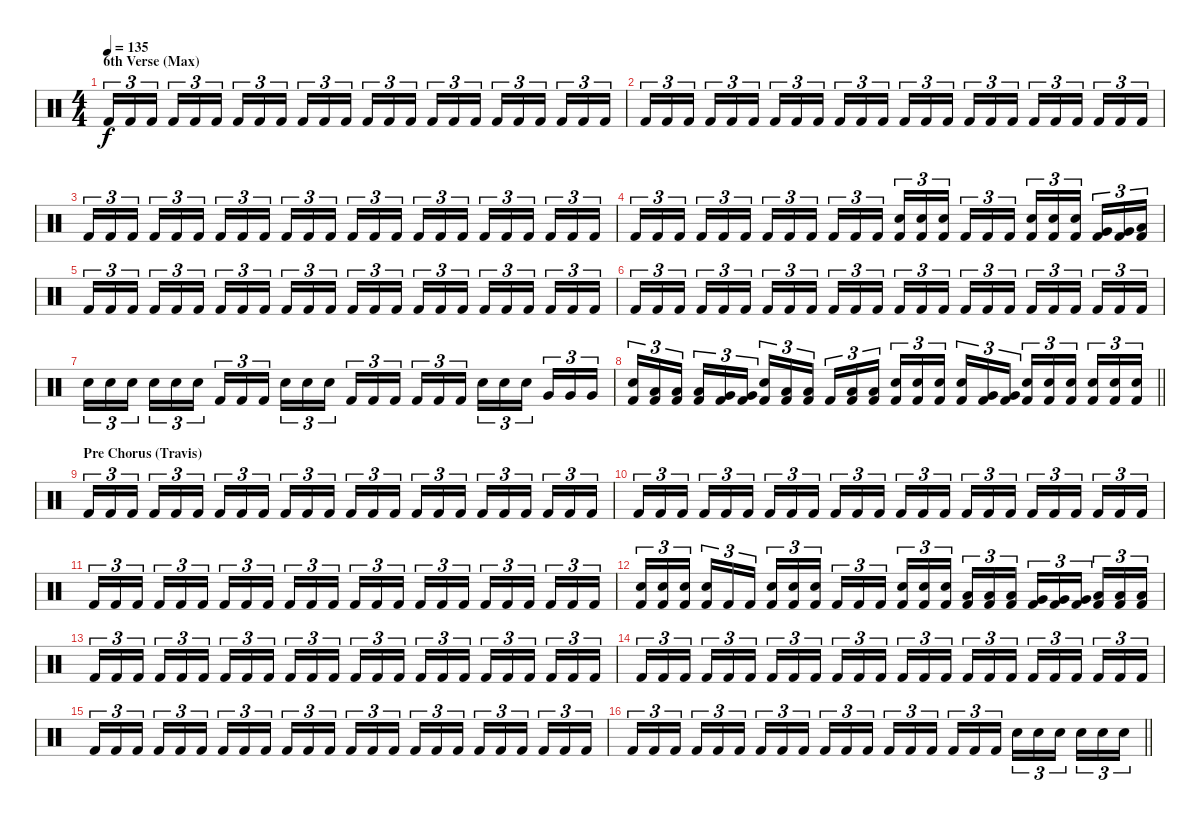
\track "" {instrument percussion}
\staff {score}
\articulation defaults
\ts (4 4)
\section ("" "6th Verse (Max)")
\tempo 135
\clef neutral
\ks c "Kick (hit) 2".16{tu (3 2) dy f} "Kick (hit) 2".16{tu (3 2)} "Kick (hit) 2".16{tu (3 2) beam splitsecondary} "Kick (hit) 2".16{tu (3 2)} "Kick (hit) 2".16{tu (3 2)} "Kick (hit) 2".16{tu (3 2)} "Kick (hit) 2".16{tu (3 2)} "Kick (hit) 2".16{tu (3 2)} "Kick (hit) 2".16{tu (3 2) beam splitsecondary} "Kick (hit) 2".16{tu (3 2)} "Kick (hit) 2".16{tu (3 2)} "Kick (hit) 2".16{tu (3 2)} "Kick (hit) 2".16{tu (3 2)} "Kick (hit) 2".16{tu (3 2)} "Kick (hit) 2".16{tu (3 2) beam splitsecondary} "Kick (hit) 2".16{tu (3 2)} "Kick (hit) 2".16{tu (3 2)} "Kick (hit) 2".16{tu (3 2)} "Kick (hit) 2".16{tu (3 2)} "Kick (hit) 2".16{tu (3 2)} "Kick (hit) 2".16{tu (3 2) beam splitsecondary} "Kick (hit) 2".16{tu (3 2)} "Kick (hit) 2".16{tu (3 2)} "Kick (hit) 2".16{tu (3 2)}
|
"Kick (hit) 2".16{tu (3 2)} "Kick (hit) 2".16{tu (3 2)} "Kick (hit) 2".16{tu (3 2) beam splitsecondary} "Kick (hit) 2".16{tu (3 2)} "Kick (hit) 2".16{tu (3 2)} "Kick (hit) 2".16{tu (3 2)} "Kick (hit) 2".16{tu (3 2)} "Kick (hit) 2".16{tu (3 2)} "Kick (hit) 2".16{tu (3 2) beam splitsecondary} "Kick (hit) 2".16{tu (3 2)} "Kick (hit) 2".16{tu (3 2)} "Kick (hit) 2".16{tu (3 2)} "Kick (hit) 2".16{tu (3 2)} "Kick (hit) 2".16{tu (3 2)} "Kick (hit) 2".16{tu (3 2) beam splitsecondary} "Kick (hit) 2".16{tu (3 2)} "Kick (hit) 2".16{tu (3 2)} "Kick (hit) 2".16{tu (3 2)} "Kick (hit) 2".16{tu (3 2)} "Kick (hit) 2".16{tu (3 2)} "Kick (hit) 2".16{tu (3 2) beam splitsecondary} "Kick (hit) 2".16{tu (3 2)} "Kick (hit) 2".16{tu (3 2)} "Kick (hit) 2".16{tu (3 2)} |
"Kick (hit) 2".16{tu (3 2)} "Kick (hit) 2".16{tu (3 2)} "Kick (hit) 2".16{tu (3 2) beam splitsecondary} "Kick (hit) 2".16{tu (3 2)} "Kick (hit) 2".16{tu (3 2)} "Kick (hit) 2".16{tu (3 2)} "Kick (hit) 2".16{tu (3 2)} "Kick (hit) 2".16{tu (3 2)} "Kick (hit) 2".16{tu (3 2) beam splitsecondary} "Kick (hit) 2".16{tu (3 2)} "Kick (hit) 2".16{tu (3 2)} "Kick (hit) 2".16{tu (3 2)} "Kick (hit) 2".16{tu (3 2)} "Kick (hit) 2".16{tu (3 2)} "Kick (hit) 2".16{tu (3 2) beam splitsecondary} "Kick (hit) 2".16{tu (3 2)} "Kick (hit) 2".16{tu (3 2)} "Kick (hit) 2".16{tu (3 2)} "Kick (hit) 2".16{tu (3 2)} "Kick (hit) 2".16{tu (3 2)} "Kick (hit) 2".16{tu (3 2) beam splitsecondary} "Kick (hit) 2".16{tu (3 2)} "Kick (hit) 2".16{tu (3 2)} "Kick (hit) 2".16{tu (3 2)} |
"Kick (hit) 2".16{tu (3 2)} "Kick (hit) 2".16{tu (3 2)} "Kick (hit) 2".16{tu (3 2) beam splitsecondary} "Kick (hit) 2".16{tu (3 2)} "Kick (hit) 2".16{tu (3 2)} "Kick (hit) 2".16{tu (3 2)} "Kick (hit) 2".16{tu (3 2)} "Kick (hit) 2".16{tu (3 2)} "Kick (hit) 2".16{tu (3 2) beam splitsecondary} "Kick (hit) 2".16{tu (3 2)} "Kick (hit) 2".16{tu (3 2)} "Kick (hit) 2".16{tu (3 2)} ("Snare (hit) 2" "Kick (hit) 2").16{tu (3 2)} ("Snare (hit) 2" "Kick (hit) 2").16{tu (3 2)} ("Snare (hit) 2" "Kick (hit) 2").16{tu (3 2) beam splitsecondary} "Kick (hit) 2".16{tu (3 2)} "Kick (hit) 2".16{tu (3 2)} "Kick (hit) 2".16{tu (3 2)} ("Snare (hit) 2" "Kick (hit) 2").16{tu (3 2)} ("Snare (hit) 2" "Kick (hit) 2").16{tu (3 2)} ("Snare (hit) 2" "Kick (hit) 2").16{tu (3 2) beam splitsecondary} ("Very Low Tom (hit)" "Kick (hit) 2").16{tu (3 2)} ("Very Low Tom (hit)" "Kick (hit) 2").16{tu (3 2)} ("Low Floor Tom (hit)" "Kick (hit) 2").16{tu (3 2)} |
"Kick (hit) 2".16{tu (3 2)} "Kick (hit) 2".16{tu (3 2)} "Kick (hit) 2".16{tu (3 2) beam splitsecondary} "Kick (hit) 2".16{tu (3 2)} "Kick (hit) 2".16{tu (3 2)} "Kick (hit) 2".16{tu (3 2)} "Kick (hit) 2".16{tu (3 2)} "Kick (hit) 2".16{tu (3 2)} "Kick (hit) 2".16{tu (3 2) beam splitsecondary} "Kick (hit) 2".16{tu (3 2)} "Kick (hit) 2".16{tu (3 2)} "Kick (hit) 2".16{tu (3 2)} "Kick (hit) 2".16{tu (3 2)} "Kick (hit) 2".16{tu (3 2)} "Kick (hit) 2".16{tu (3 2) beam splitsecondary} "Kick (hit) 2".16{tu (3 2)} "Kick (hit) 2".16{tu (3 2)} "Kick (hit) 2".16{tu (3 2)} "Kick (hit) 2".16{tu (3 2)} "Kick (hit) 2".16{tu (3 2)} "Kick (hit) 2".16{tu (3 2) beam splitsecondary} "Kick (hit) 2".16{tu (3 2)} "Kick (hit) 2".16{tu (3 2)} "Kick (hit) 2".16{tu (3 2)} |
"Kick (hit) 2".16{tu (3 2)} "Kick (hit) 2".16{tu (3 2)} "Kick (hit) 2".16{tu (3 2) beam splitsecondary} "Kick (hit) 2".16{tu (3 2)} "Kick (hit) 2".16{tu (3 2)} "Kick (hit) 2".16{tu (3 2)} "Kick (hit) 2".16{tu (3 2)} "Kick (hit) 2".16{tu (3 2)} "Kick (hit) 2".16{tu (3 2) beam splitsecondary} "Kick (hit) 2".16{tu (3 2)} "Kick (hit) 2".16{tu (3 2)} "Kick (hit) 2".16{tu (3 2)} "Kick (hit) 2".16{tu (3 2)} "Kick (hit) 2".16{tu (3 2)} "Kick (hit) 2".16{tu (3 2) beam splitsecondary} "Kick (hit) 2".16{tu (3 2)} "Kick (hit) 2".16{tu (3 2)} "Kick (hit) 2".16{tu (3 2)} "Kick (hit) 2".16{tu (3 2)} "Kick (hit) 2".16{tu (3 2)} "Kick (hit) 2".16{tu (3 2) beam splitsecondary} "Kick (hit) 2".16{tu (3 2)} "Kick (hit) 2".16{tu (3 2)} "Kick (hit) 2".16{tu (3 2)} |
"Snare (hit) 2".16{tu (3 2)} "Snare (hit) 2".16{tu (3 2)} "Snare (hit) 2".16{tu (3 2) beam splitsecondary} "Snare (hit) 2".16{tu (3 2)} "Snare (hit) 2".16{tu (3 2)} "Snare (hit) 2".16{tu (3 2)} "Kick (hit) 2".16{tu (3 2)} "Kick (hit) 2".16{tu (3 2)} "Kick (hit) 2".16{tu (3 2) beam splitsecondary} "Snare (hit) 2".16{tu (3 2)} "Snare (hit) 2".16{tu (3 2)} "Snare (hit) 2".16{tu (3 2)} "Kick (hit) 2".16{tu (3 2)} "Kick (hit) 2".16{tu (3 2)} "Kick (hit) 2".16{tu (3 2) beam splitsecondary} "Kick (hit) 2".16{tu (3 2)} "Kick (hit) 2".16{tu (3 2)} "Kick (hit) 2".16{tu (3 2)} "Snare (hit) 2".16{tu (3 2)} "Snare (hit) 2".16{tu (3 2)} "Snare (hit) 2".16{tu (3 2) beam splitsecondary} "Very Low Tom (hit)".16{tu (3 2)} "Very Low Tom (hit)".16{tu (3 2)} "Very Low Tom (hit)".16{tu (3 2)} |
\barLineRight lightlight
("Snare (hit) 2" "Kick (hit) 2").16{tu (3 2)} ("Low Tom (hit)" "Kick (hit) 2").16{tu (3 2)} ("Low Tom (hit)" "Kick (hit) 2").16{tu (3 2) beam splitsecondary} ("Low Tom (hit)" "Kick (hit) 2").16{tu (3 2)} ("Very Low Tom (hit)" "Kick (hit) 2").16{tu (3 2)} ("Very Low Tom (hit)" "Kick (hit) 2").16{tu (3 2)} ("Snare (hit) 2" "Kick (hit) 2").16{tu (3 2)} ("Low Floor Tom (hit)" "Kick (hit) 2").16{tu (3 2)} ("Low Floor Tom (hit)" "Kick (hit) 2").16{tu (3 2) beam splitsecondary} "Kick (hit) 2".16{tu (3 2)} ("Low Floor Tom (hit)" "Kick (hit) 2").16{tu (3 2)} ("Low Floor Tom (hit)" "Kick (hit) 2").16{tu (3 2)} ("Snare (hit) 2" "Kick (hit) 2").16{tu (3 2)} ("Snare (hit) 2" "Kick (hit) 2").16{tu (3 2)} ("Snare (hit) 2" "Kick (hit) 2").16{tu (3 2) beam splitsecondary} ("Snare (hit) 2" "Kick (hit) 2").16{tu (3 2)} ("Very Low Tom (hit)" "Kick (hit) 2").16{tu (3 2)} ("Very Low Tom (hit)" "Kick (hit) 2").16{tu (3 2)} ("Snare (hit) 2" "Kick (hit) 2").16{tu (3 2)} ("Snare (hit) 2" "Kick (hit) 2").16{tu (3 2)} ("Snare (hit) 2" "Kick (hit) 2").16{tu (3 2) beam splitsecondary} ("Snare (hit) 2" "Kick (hit) 2").16{tu (3 2)} ("Snare (hit) 2" "Kick (hit) 2").16{tu (3 2)} ("Snare (hit) 2" "Kick (hit) 2").16{tu (3 2)} |
\section ("" "Pre Chorus (Travis)")
"Kick (hit) 2".16{tu (3 2)} "Kick (hit) 2".16{tu (3 2)} "Kick (hit) 2".16{tu (3 2) beam splitsecondary} "Kick (hit) 2".16{tu (3 2)} "Kick (hit) 2".16{tu (3 2)} "Kick (hit) 2".16{tu (3 2)} "Kick (hit) 2".16{tu (3 2)} "Kick (hit) 2".16{tu (3 2)} "Kick (hit) 2".16{tu (3 2) beam splitsecondary} "Kick (hit) 2".16{tu (3 2)} "Kick (hit) 2".16{tu (3 2)} "Kick (hit) 2".16{tu (3 2)} "Kick (hit) 2".16{tu (3 2)} "Kick (hit) 2".16{tu (3 2)} "Kick (hit) 2".16{tu (3 2) beam splitsecondary} "Kick (hit) 2".16{tu (3 2)} "Kick (hit) 2".16{tu (3 2)} "Kick (hit) 2".16{tu (3 2)} "Kick (hit) 2".16{tu (3 2)} "Kick (hit) 2".16{tu (3 2)} "Kick (hit) 2".16{tu (3 2) beam splitsecondary} "Kick (hit) 2".16{tu (3 2)} "Kick (hit) 2".16{tu (3 2)} "Kick (hit) 2".16{tu (3 2)} |
"Kick (hit) 2".16{tu (3 2)} "Kick (hit) 2".16{tu (3 2)} "Kick (hit) 2".16{tu (3 2) beam splitsecondary} "Kick (hit) 2".16{tu (3 2)} "Kick (hit) 2".16{tu (3 2)} "Kick (hit) 2".16{tu (3 2)} "Kick (hit) 2".16{tu (3 2)} "Kick (hit) 2".16{tu (3 2)} "Kick (hit) 2".16{tu (3 2) beam splitsecondary} "Kick (hit) 2".16{tu (3 2)} "Kick (hit) 2".16{tu (3 2)} "Kick (hit) 2".16{tu (3 2)} "Kick (hit) 2".16{tu (3 2)} "Kick (hit) 2".16{tu (3 2)} "Kick (hit) 2".16{tu (3 2) beam splitsecondary} "Kick (hit) 2".16{tu (3 2)} "Kick (hit) 2".16{tu (3 2)} "Kick (hit) 2".16{tu (3 2)} "Kick (hit) 2".16{tu (3 2)} "Kick (hit) 2".16{tu (3 2)} "Kick (hit) 2".16{tu (3 2) beam splitsecondary} "Kick (hit) 2".16{tu (3 2)} "Kick (hit) 2".16{tu (3 2)} "Kick (hit) 2".16{tu (3 2)} |
"Kick (hit) 2".16{tu (3 2)} "Kick (hit) 2".16{tu (3 2)} "Kick (hit) 2".16{tu (3 2) beam splitsecondary} "Kick (hit) 2".16{tu (3 2)} "Kick (hit) 2".16{tu (3 2)} "Kick (hit) 2".16{tu (3 2)} "Kick (hit) 2".16{tu (3 2)} "Kick (hit) 2".16{tu (3 2)} "Kick (hit) 2".16{tu (3 2) beam splitsecondary} "Kick (hit) 2".16{tu (3 2)} "Kick (hit) 2".16{tu (3 2)} "Kick (hit) 2".16{tu (3 2)} "Kick (hit) 2".16{tu (3 2)} "Kick (hit) 2".16{tu (3 2)} "Kick (hit) 2".16{tu (3 2) beam splitsecondary} "Kick (hit) 2".16{tu (3 2)} "Kick (hit) 2".16{tu (3 2)} "Kick (hit) 2".16{tu (3 2)} "Kick (hit) 2".16{tu (3 2)} "Kick (hit) 2".16{tu (3 2)} "Kick (hit) 2".16{tu (3 2) beam splitsecondary} "Kick (hit) 2".16{tu (3 2)} "Kick (hit) 2".16{tu (3 2)} "Kick (hit) 2".16{tu (3 2)} |
("Snare (hit) 2" "Kick (hit) 2").16{tu (3 2)} ("Snare (hit) 2" "Kick (hit) 2").16{tu (3 2)} ("Snare (hit) 2" "Kick (hit) 2").16{tu (3 2) beam splitsecondary} ("Snare (hit) 2" "Kick (hit) 2").16{tu (3 2)} "Kick (hit) 2".16{tu (3 2)} "Kick (hit) 2".16{tu (3 2)} ("Snare (hit) 2" "Kick (hit) 2").16{tu (3 2)} ("Snare (hit) 2" "Kick (hit) 2").16{tu (3 2)} ("Snare (hit) 2" "Kick (hit) 2").16{tu (3 2) beam splitsecondary} "Kick (hit) 2".16{tu (3 2)} "Kick (hit) 2".16{tu (3 2)} "Kick (hit) 2".16{tu (3 2)} ("Snare (hit) 2" "Kick (hit) 2").16{tu (3 2)} ("Snare (hit) 2" "Kick (hit) 2").16{tu (3 2)} ("Snare (hit) 2" "Kick (hit) 2").16{tu (3 2) beam splitsecondary} ("Low Tom (hit)" "Kick (hit) 2").16{tu (3 2)} ("Low Tom (hit)" "Kick (hit) 2").16{tu (3 2)} ("Low Tom (hit)" "Kick (hit) 2").16{tu (3 2)} ("Very Low Tom (hit)" "Kick (hit) 2").16{tu (3 2)} ("Very Low Tom (hit)" "Kick (hit) 2").16{tu (3 2)} ("Very Low Tom (hit)" "Kick (hit) 2").16{tu (3 2) beam splitsecondary} ("Low Floor Tom (hit)" "Kick (hit) 2").16{tu (3 2)} ("Low Floor Tom (hit)" "Kick (hit) 2").16{tu (3 2)} ("Low Floor Tom (hit)" "Kick (hit) 2").16{tu (3 2)} |
"Kick (hit) 2".16{tu (3 2)} "Kick (hit) 2".16{tu (3 2)} "Kick (hit) 2".16{tu (3 2) beam splitsecondary} "Kick (hit) 2".16{tu (3 2)} "Kick (hit) 2".16{tu (3 2)} "Kick (hit) 2".16{tu (3 2)} "Kick (hit) 2".16{tu (3 2)} "Kick (hit) 2".16{tu (3 2)} "Kick (hit) 2".16{tu (3 2) beam splitsecondary} "Kick (hit) 2".16{tu (3 2)} "Kick (hit) 2".16{tu (3 2)} "Kick (hit) 2".16{tu (3 2)} "Kick (hit) 2".16{tu (3 2)} "Kick (hit) 2".16{tu (3 2)} "Kick (hit) 2".16{tu (3 2) beam splitsecondary} "Kick (hit) 2".16{tu (3 2)} "Kick (hit) 2".16{tu (3 2)} "Kick (hit) 2".16{tu (3 2)} "Kick (hit) 2".16{tu (3 2)} "Kick (hit) 2".16{tu (3 2)} "Kick (hit) 2".16{tu (3 2) beam splitsecondary} "Kick (hit) 2".16{tu (3 2)} "Kick (hit) 2".16{tu (3 2)} "Kick (hit) 2".16{tu (3 2)} |
"Kick (hit) 2".16{tu (3 2)} "Kick (hit) 2".16{tu (3 2)} "Kick (hit) 2".16{tu (3 2) beam splitsecondary} "Kick (hit) 2".16{tu (3 2)} "Kick (hit) 2".16{tu (3 2)} "Kick (hit) 2".16{tu (3 2)} "Kick (hit) 2".16{tu (3 2)} "Kick (hit) 2".16{tu (3 2)} "Kick (hit) 2".16{tu (3 2) beam splitsecondary} "Kick (hit) 2".16{tu (3 2)} "Kick (hit) 2".16{tu (3 2)} "Kick (hit) 2".16{tu (3 2)} "Kick (hit) 2".16{tu (3 2)} "Kick (hit) 2".16{tu (3 2)} "Kick (hit) 2".16{tu (3 2) beam splitsecondary} "Kick (hit) 2".16{tu (3 2)} "Kick (hit) 2".16{tu (3 2)} "Kick (hit) 2".16{tu (3 2)} "Kick (hit) 2".16{tu (3 2)} "Kick (hit) 2".16{tu (3 2)} "Kick (hit) 2".16{tu (3 2) beam splitsecondary} "Kick (hit) 2".16{tu (3 2)} "Kick (hit) 2".16{tu (3 2)} "Kick (hit) 2".16{tu (3 2)} |
"Kick (hit) 2".16{tu (3 2)} "Kick (hit) 2".16{tu (3 2)} "Kick (hit) 2".16{tu (3 2) beam splitsecondary} "Kick (hit) 2".16{tu (3 2)} "Kick (hit) 2".16{tu (3 2)} "Kick (hit) 2".16{tu (3 2)} "Kick (hit) 2".16{tu (3 2)} "Kick (hit) 2".16{tu (3 2)} "Kick (hit) 2".16{tu (3 2) beam splitsecondary} "Kick (hit) 2".16{tu (3 2)} "Kick (hit) 2".16{tu (3 2)} "Kick (hit) 2".16{tu (3 2)} "Kick (hit) 2".16{tu (3 2)} "Kick (hit) 2".16{tu (3 2)} "Kick (hit) 2".16{tu (3 2) beam splitsecondary} "Kick (hit) 2".16{tu (3 2)} "Kick (hit) 2".16{tu (3 2)} "Kick (hit) 2".16{tu (3 2)} "Kick (hit) 2".16{tu (3 2)} "Kick (hit) 2".16{tu (3 2)} "Kick (hit) 2".16{tu (3 2) beam splitsecondary} "Kick (hit) 2".16{tu (3 2)} "Kick (hit) 2".16{tu (3 2)} "Kick (hit) 2".16{tu (3 2)} |
\barLineRight lightlight "Kick (hit) 2".16{tu (3 2)} "Kick (hit) 2".16{tu (3 2)} "Kick (hit) 2".16{tu (3 2) beam splitsecondary} "Kick (hit) 2".16{tu (3 2)} "Kick (hit) 2".16{tu (3 2)} "Kick (hit) 2".16{tu (3 2)} "Kick (hit) 2".16{tu (3 2)} "Kick (hit) 2".16{tu (3 2)} "Kick (hit) 2".16{tu (3 2) beam splitsecondary} "Kick (hit) 2".16{tu (3 2)} "Kick (hit) 2".16{tu (3 2)} "Kick (hit) 2".16{tu (3 2)} "Kick (hit) 2".16{tu (3 2)} "Kick (hit) 2".16{tu (3 2)} "Kick (hit) 2".16{tu (3 2) beam splitsecondary} "Kick (hit) 2".16{tu (3 2)} "Kick (hit) 2".16{tu (3 2)} "Kick (hit) 2".16{tu (3 2)} "Snare (hit) 2".16{tu (3 2)} "Snare (hit) 2".16{tu (3 2)} "Snare (hit) 2".16{tu (3 2) beam splitsecondary} "Snare (hit) 2".16{tu (3 2)} "Snare (hit) 2".16{tu (3 2)} "Snare (hit) 2".16{tu (3 2)}
